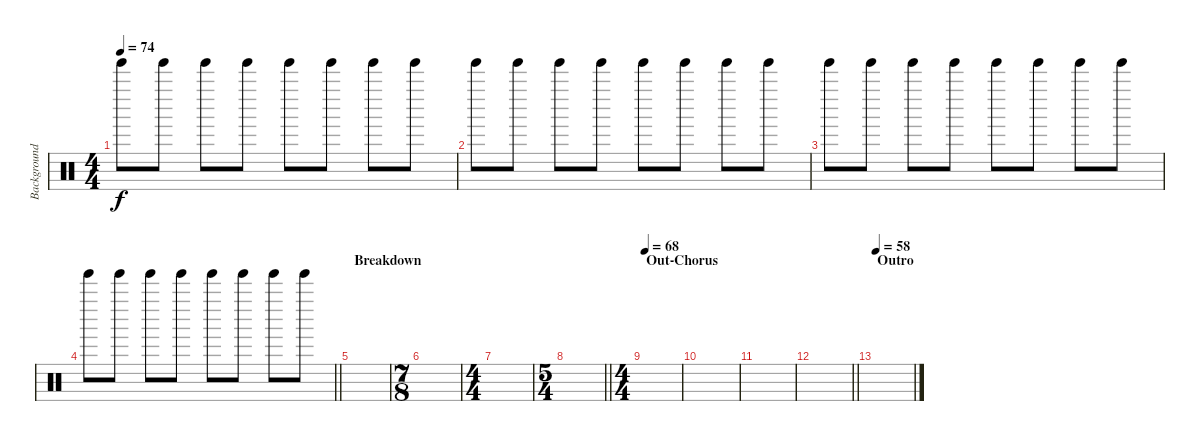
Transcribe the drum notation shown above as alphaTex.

\track ("Background Percussion" "Background") {instrument percussion}
\staff {score}
\articulation defaults
\ts (4 4)
\tempo 74
\clef neutral
\ks c "Tinkle Bell (hit)".8{dy f} "Tinkle Bell (hit)".8 "Tinkle Bell (hit)".8 "Tinkle Bell (hit)".8 "Tinkle Bell (hit)".8 "Tinkle Bell (hit)".8 "Tinkle Bell (hit)".8 "Tinkle Bell (hit)".8
|
"Tinkle Bell (hit)".8 "Tinkle Bell (hit)".8 "Tinkle Bell (hit)".8 "Tinkle Bell (hit)".8 "Tinkle Bell (hit)".8 "Tinkle Bell (hit)".8 "Tinkle Bell (hit)".8 "Tinkle Bell (hit)".8 |
"Tinkle Bell (hit)".8 "Tinkle Bell (hit)".8 "Tinkle Bell (hit)".8 "Tinkle Bell (hit)".8 "Tinkle Bell (hit)".8 "Tinkle Bell (hit)".8 "Tinkle Bell (hit)".8 "Tinkle Bell (hit)".8 |
\barLineRight lightlight "Tinkle Bell (hit)".8 "Tinkle Bell (hit)".8 "Tinkle Bell (hit)".8 "Tinkle Bell (hit)".8 "Tinkle Bell (hit)".8 "Tinkle Bell (hit)".8 "Tinkle Bell (hit)".8 "Tinkle Bell (hit)".8
|
\section ("" "Breakdown")
|
\ts (7 8)
|
\ts (4 4)
|
\ts (5 4)
\barLineRight lightlight
|
\ts (4 4)
\section ("" "Out-Chorus")
\tempo 68
|
|
|
\barLineRight lightlight
|
\section ("" "Outro")
\tempo 58
